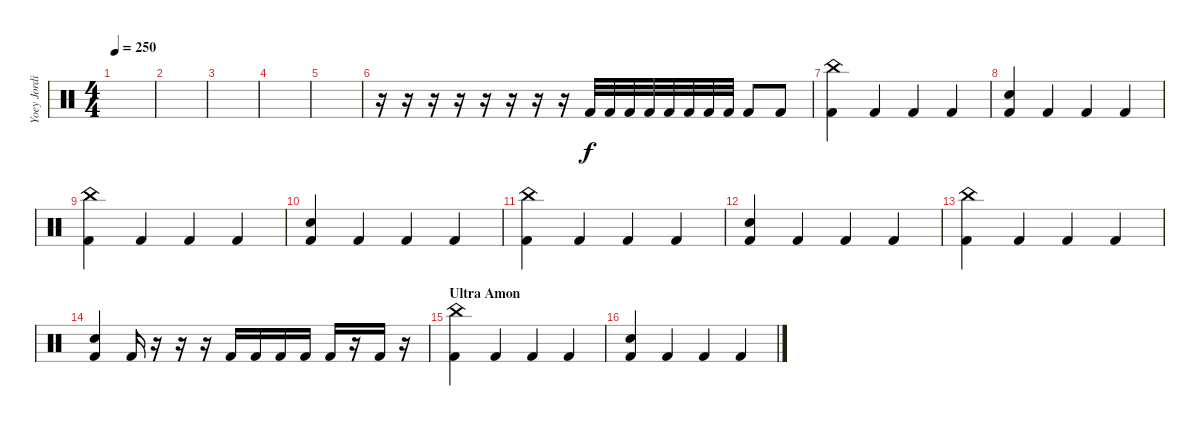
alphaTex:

\track ("Yoey Jordison" "Yoey Jordi") {instrument percussion}
\staff {score}
\articulation defaults
\ts (4 4)
\tempo 250
\clef neutral
\ks c
|
|
|
|
|
r.16 r.16 r.16 r.16 r.16 r.16 r.16 r.16 "Kick (hit) 2".32 "Kick (hit) 2".32 "Kick (hit) 2".32 "Kick (hit) 2".32 "Kick (hit) 2".32 "Kick (hit) 2".32 "Kick (hit) 2".32 "Kick (hit) 2".32 "Kick (hit) 2".8 "Kick (hit) 2".8 |
("Kick (hit) 2" "China (hit)").4 "Kick (hit) 2".4 "Kick (hit) 2".4 "Kick (hit) 2".4 |
("Kick (hit) 2" "Snare (hit) 2").4 "Kick (hit) 2".4 "Kick (hit) 2".4 "Kick (hit) 2".4 |
("Kick (hit) 2" "China (hit)").4 "Kick (hit) 2".4 "Kick (hit) 2".4 "Kick (hit) 2".4 |
("Kick (hit) 2" "Snare (hit) 2").4 "Kick (hit) 2".4 "Kick (hit) 2".4 "Kick (hit) 2".4 |
("Kick (hit) 2" "China (hit)").4 "Kick (hit) 2".4 "Kick (hit) 2".4 "Kick (hit) 2".4 |
("Kick (hit) 2" "Snare (hit) 2").4 "Kick (hit) 2".4 "Kick (hit) 2".4 "Kick (hit) 2".4 |
("Kick (hit) 2" "China (hit)").4 "Kick (hit) 2".4 "Kick (hit) 2".4 "Kick (hit) 2".4 |
("Kick (hit) 2" "Snare (hit) 2").4 "Kick (hit) 2".16 r.16 r.16 r.16 "Kick (hit) 2".16 "Kick (hit) 2".16 "Kick (hit) 2".16 "Kick (hit) 2".16 "Kick (hit) 2".16 r.16 "Kick (hit) 2".16 r.16 |
\section ("" "Ultra Amon")
("Kick (hit) 2" "China (hit)").4 "Kick (hit) 2".4 "Kick (hit) 2".4 "Kick (hit) 2".4 |
("Kick (hit) 2" "Snare (hit) 2").4 "Kick (hit) 2".4 "Kick (hit) 2".4 "Kick (hit) 2".4
